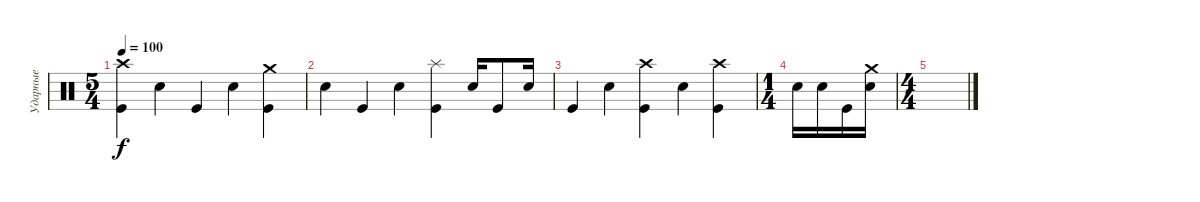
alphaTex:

\track ("Ударные" "Ударные") {instrument percussion}
\staff {score}
\articulation defaults
\ts (5 4)
\tempo 100
\clef neutral
\ks c
("Crash high (hit)" "Kick (hit)").4{dy f} "Electric Snare (hit)".4 "Kick (hit)".4 "Electric Snare (hit)".4 ("Crash medium (hit)" "Kick (hit)").4 |
"Electric Snare (hit)".4 "Kick (hit)".4 "Electric Snare (hit)".4 ("Splash (hit)" "Kick (hit)").4 "Electric Snare (hit)".16 "Kick (hit)".8 "Electric Snare (hit)".16 |
"Kick (hit)".4 "Electric Snare (hit)".4 ("Crash high (hit)" "Kick (hit)").4 "Electric Snare (hit)".4 ("Crash high (hit)" "Kick (hit)").4 |
\ts (1 4)
"Electric Snare (hit)".16 "Electric Snare (hit)".16 "Kick (hit)".16 ("Crash medium (hit)" "Electric Snare (hit)").16 |
\ts (4 4)
